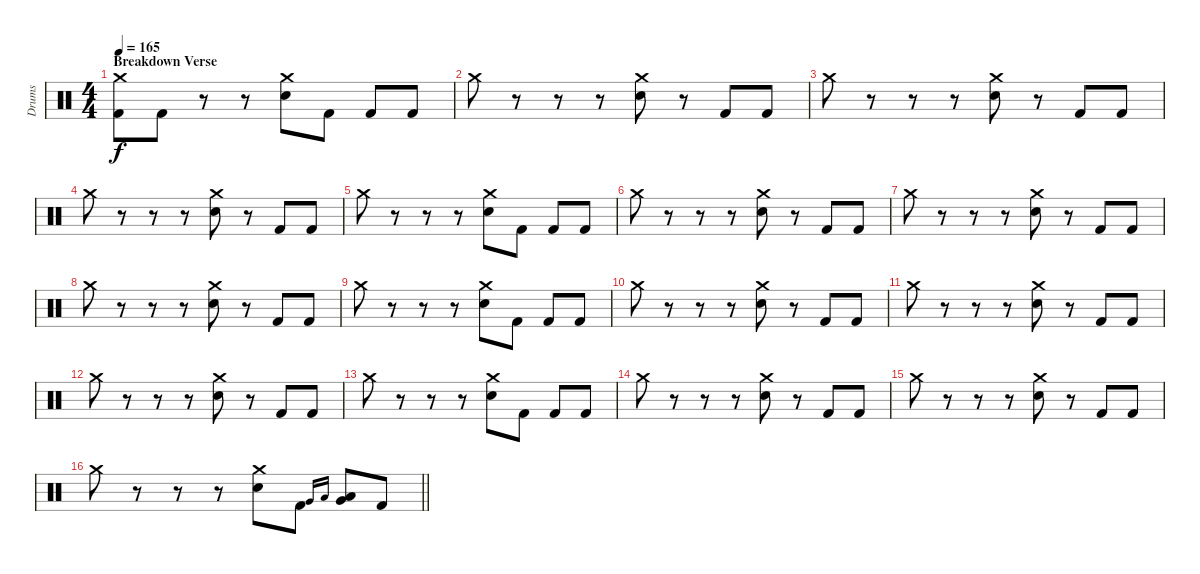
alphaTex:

\track ("Drums" "Drums") {instrument percussion}
\staff {score}
\articulation defaults
\ts (4 4)
\section ("" "Breakdown Verse")
\tempo 165
\clef neutral
\ks c
("Crash medium (hit)" "Kick (hit) 2").8{dy f} "Kick (hit) 2".8 r.8 r.8 ("Crash medium (hit)" "Electric Snare (hit)").8 "Kick (hit) 2".8 "Kick (hit) 2".8 "Kick (hit) 2".8 |
"Crash medium (hit)".8 r.8 r.8 r.8 ("Crash medium (hit)" "Electric Snare (hit)").8 r.8 "Kick (hit) 2".8 "Kick (hit) 2".8 |
"Crash medium (hit)".8 r.8 r.8 r.8 ("Crash medium (hit)" "Electric Snare (hit)").8 r.8 "Kick (hit) 2".8 "Kick (hit) 2".8 |
"Crash medium (hit)".8 r.8 r.8 r.8 ("Crash medium (hit)" "Electric Snare (hit)").8 r.8 "Kick (hit) 2".8 "Kick (hit) 2".8 |
"Crash medium (hit)".8 r.8 r.8 r.8 ("Crash medium (hit)" "Electric Snare (hit)").8 "Kick (hit) 2".8 "Kick (hit) 2".8 "Kick (hit) 2".8 |
"Crash medium (hit)".8 r.8 r.8 r.8 ("Crash medium (hit)" "Electric Snare (hit)").8 r.8 "Kick (hit) 2".8 "Kick (hit) 2".8 |
"Crash medium (hit)".8 r.8 r.8 r.8 ("Crash medium (hit)" "Electric Snare (hit)").8 r.8 "Kick (hit) 2".8 "Kick (hit) 2".8 |
"Crash medium (hit)".8 r.8 r.8 r.8 ("Crash medium (hit)" "Electric Snare (hit)").8 r.8 "Kick (hit) 2".8 "Kick (hit) 2".8 |
"Crash medium (hit)".8 r.8 r.8 r.8 ("Crash medium (hit)" "Electric Snare (hit)").8 "Kick (hit) 2".8 "Kick (hit) 2".8 "Kick (hit) 2".8 |
"Crash medium (hit)".8 r.8 r.8 r.8 ("Crash medium (hit)" "Electric Snare (hit)").8 r.8 "Kick (hit) 2".8 "Kick (hit) 2".8 |
"Crash medium (hit)".8 r.8 r.8 r.8 ("Crash medium (hit)" "Electric Snare (hit)").8 r.8 "Kick (hit) 2".8 "Kick (hit) 2".8 |
"Crash medium (hit)".8 r.8 r.8 r.8 ("Crash medium (hit)" "Electric Snare (hit)").8 r.8 "Kick (hit) 2".8 "Kick (hit) 2".8 |
"Crash medium (hit)".8 r.8 r.8 r.8 ("Crash medium (hit)" "Electric Snare (hit)").8 "Kick (hit) 2".8 "Kick (hit) 2".8 "Kick (hit) 2".8 |
"Crash medium (hit)".8 r.8 r.8 r.8 ("Crash medium (hit)" "Electric Snare (hit)").8 r.8 "Kick (hit) 2".8 "Kick (hit) 2".8 |
"Crash medium (hit)".8 r.8 r.8 r.8 ("Crash medium (hit)" "Electric Snare (hit)").8 r.8 "Kick (hit) 2".8 "Kick (hit) 2".8 |
\barLineRight lightlight "Crash medium (hit)".8
r.8 r.8 r.8 ("Crash medium (hit)" "Electric Snare (hit)").8 "Kick (hit) 2".8 "Very Low Tom (hit)".16{gr onbeat} "Low Floor Tom (hit)".16{gr onbeat} ("Very Low Tom (hit)" "Low Floor Tom (hit)").8 "Kick (hit) 2".8
